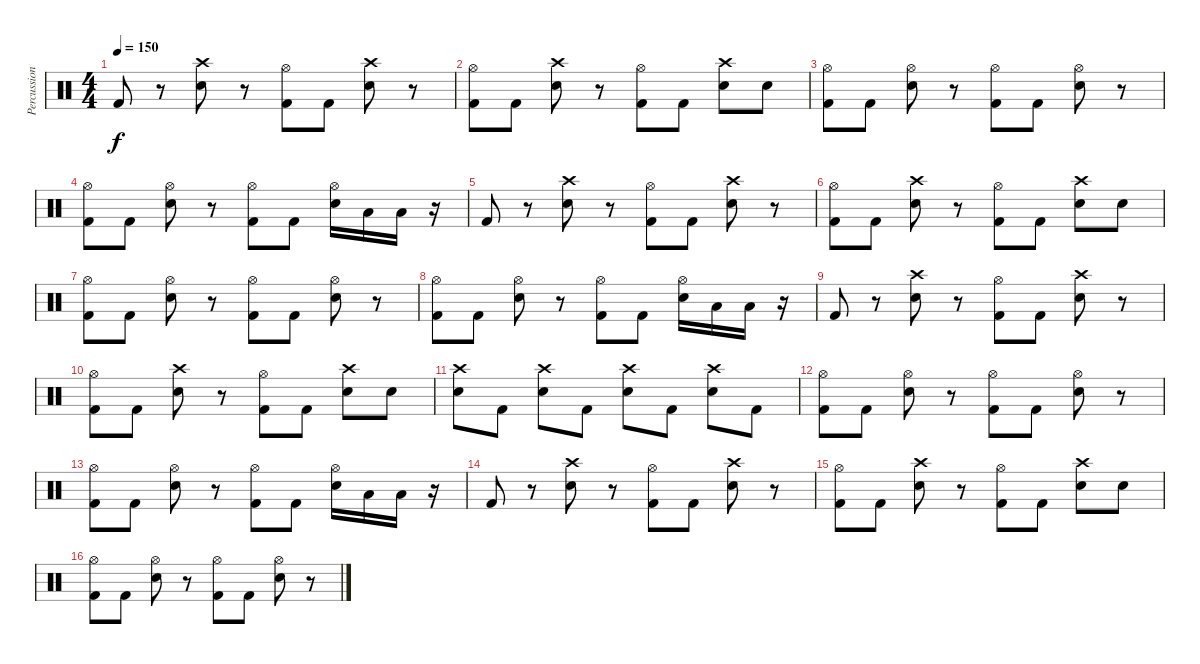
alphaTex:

\track ("Percussion" "Percussion") {instrument percussion}
\staff {score}
\articulation defaults
\ts (4 4)
\tempo 150
\clef neutral
\ks c "Kick (hit) 2".8{dy f}
r.8 ("Crash high (hit)" "Snare (hit) 2").8 r.8 ("Hi-Hat (open)" "Kick (hit) 2").8 "Kick (hit) 2".8 ("Crash high (hit)" "Snare (hit) 2").8 r.8 |
("Hi-Hat (open)" "Kick (hit) 2").8 "Kick (hit) 2".8 ("Crash high (hit)" "Snare (hit) 2").8 r.8 ("Hi-Hat (open)" "Kick (hit) 2").8 "Kick (hit) 2".8 ("Crash high (hit)" "Snare (hit) 2").8 "Snare (hit) 2".8 |
("Hi-Hat (open)" "Kick (hit) 2").8{volume 14} "Kick (hit) 2".8 ("Hi-Hat (open)" "Snare (hit) 2").8 r.8 ("Hi-Hat (open)" "Kick (hit) 2").8 "Kick (hit) 2".8 ("Hi-Hat (open)" "Snare (hit) 2").8 r.8 |
("Hi-Hat (open)" "Kick (hit) 2").8 "Kick (hit) 2".8 ("Hi-Hat (open)" "Snare (hit) 2").8 r.8 ("Hi-Hat (open)" "Kick (hit) 2").8 "Kick (hit) 2".8 ("Hi-Hat (open)" "Snare (hit) 2").16 "Low Tom (hit)".16 "Low Tom (hit)".16 r.16 |
"Kick (hit) 2".8 r.8 ("Crash high (hit)" "Snare (hit) 2").8 r.8 ("Hi-Hat (open)" "Kick (hit) 2").8 "Kick (hit) 2".8 ("Crash high (hit)" "Snare (hit) 2").8 r.8 |
("Hi-Hat (open)" "Kick (hit) 2").8 "Kick (hit) 2".8 ("Crash high (hit)" "Snare (hit) 2").8 r.8 ("Hi-Hat (open)" "Kick (hit) 2").8 "Kick (hit) 2".8 ("Crash high (hit)" "Snare (hit) 2").8 "Snare (hit) 2".8 |
("Hi-Hat (open)" "Kick (hit) 2").8 "Kick (hit) 2".8 ("Hi-Hat (open)" "Snare (hit) 2").8 r.8 ("Hi-Hat (open)" "Kick (hit) 2").8 "Kick (hit) 2".8 ("Hi-Hat (open)" "Snare (hit) 2").8 r.8 |
("Hi-Hat (open)" "Kick (hit) 2").8 "Kick (hit) 2".8 ("Hi-Hat (open)" "Snare (hit) 2").8 r.8 ("Hi-Hat (open)" "Kick (hit) 2").8 "Kick (hit) 2".8 ("Hi-Hat (open)" "Snare (hit) 2").16 "Low Tom (hit)".16 "Low Tom (hit)".16 r.16 |
"Kick (hit) 2".8 r.8 ("Crash high (hit)" "Snare (hit) 2").8 r.8 ("Hi-Hat (open)" "Kick (hit) 2").8 "Kick (hit) 2".8 ("Crash high (hit)" "Snare (hit) 2").8 r.8 |
("Hi-Hat (open)" "Kick (hit) 2").8 "Kick (hit) 2".8 ("Crash high (hit)" "Snare (hit) 2").8 r.8 ("Hi-Hat (open)" "Kick (hit) 2").8 "Kick (hit) 2".8 ("Crash high (hit)" "Snare (hit) 2").8 "Snare (hit) 2".8 |
("Crash high (hit)" "Snare (hit) 2").8 "Kick (hit) 2".8 ("Crash high (hit)" "Snare (hit) 2").8 "Kick (hit) 2".8 ("Crash high (hit)" "Snare (hit) 2").8 "Kick (hit) 2".8 ("Crash high (hit)" "Snare (hit) 2").8 "Kick (hit) 2".8 |
("Hi-Hat (open)" "Kick (hit) 2").8 "Kick (hit) 2".8 ("Hi-Hat (open)" "Snare (hit) 2").8 r.8 ("Hi-Hat (open)" "Kick (hit) 2").8 "Kick (hit) 2".8 ("Hi-Hat (open)" "Snare (hit) 2").8 r.8 |
("Hi-Hat (open)" "Kick (hit) 2").8 "Kick (hit) 2".8 ("Hi-Hat (open)" "Snare (hit) 2").8 r.8 ("Hi-Hat (open)" "Kick (hit) 2").8 "Kick (hit) 2".8 ("Hi-Hat (open)" "Snare (hit) 2").16 "Low Tom (hit)".16 "Low Tom (hit)".16 r.16 |
"Kick (hit) 2".8 r.8 ("Crash high (hit)" "Snare (hit) 2").8 r.8 ("Hi-Hat (open)" "Kick (hit) 2").8 "Kick (hit) 2".8 ("Crash high (hit)" "Snare (hit) 2").8 r.8 |
("Hi-Hat (open)" "Kick (hit) 2").8 "Kick (hit) 2".8 ("Crash high (hit)" "Snare (hit) 2").8 r.8 ("Hi-Hat (open)" "Kick (hit) 2").8 "Kick (hit) 2".8 ("Crash high (hit)" "Snare (hit) 2").8 "Snare (hit) 2".8 |
("Hi-Hat (open)" "Kick (hit) 2").8 "Kick (hit) 2".8 ("Hi-Hat (open)" "Snare (hit) 2").8 r.8 ("Hi-Hat (open)" "Kick (hit) 2").8 "Kick (hit) 2".8 ("Hi-Hat (open)" "Snare (hit) 2").8 r.8
